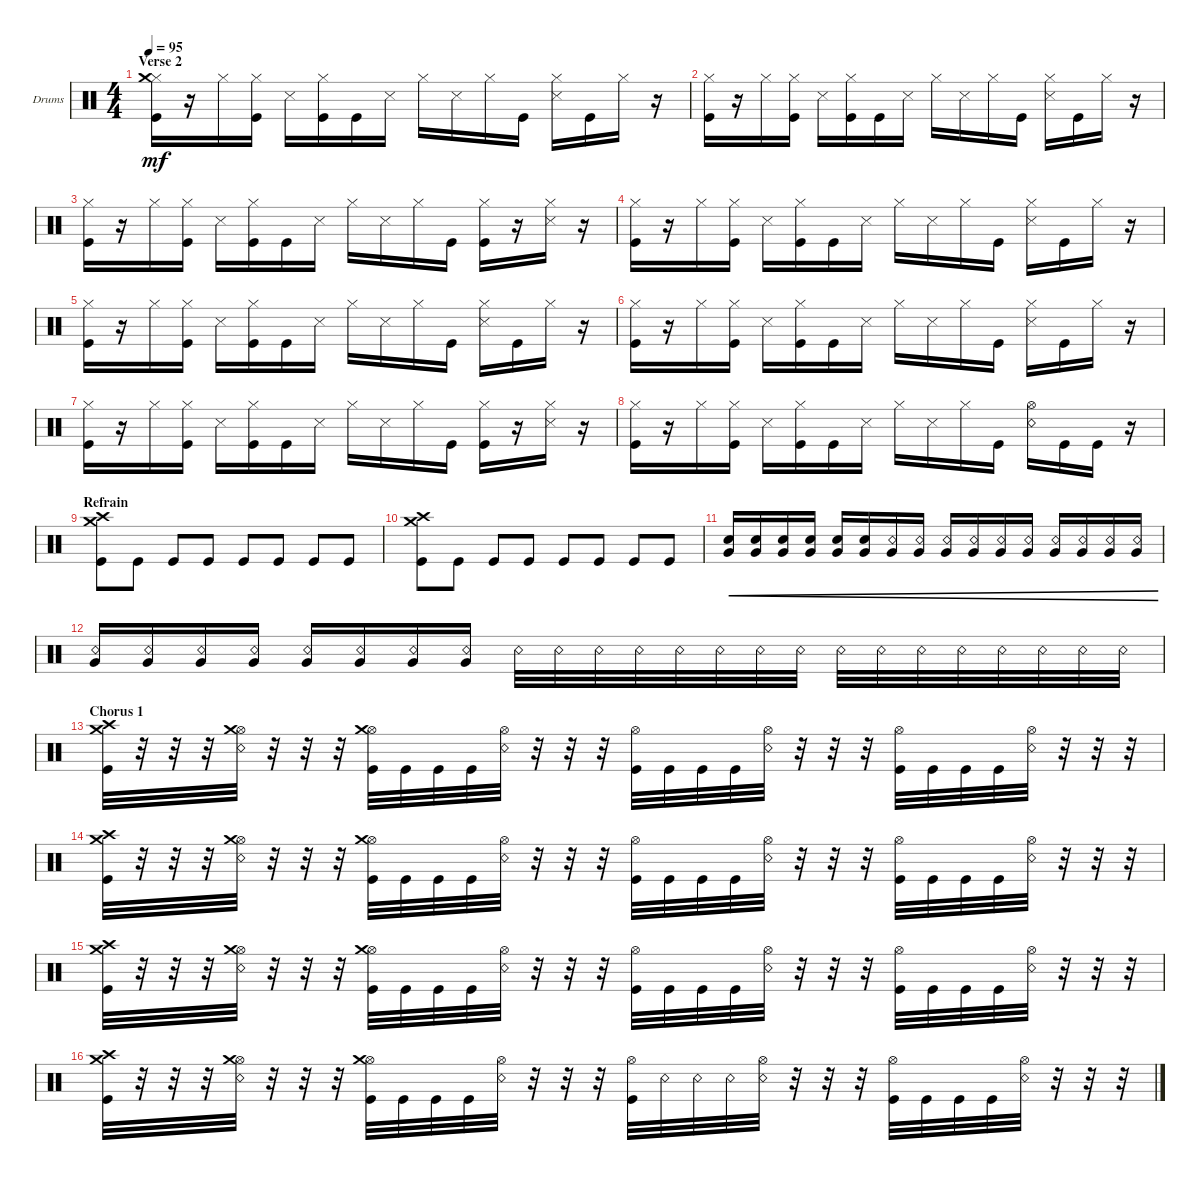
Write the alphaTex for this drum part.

\bracketExtendMode groupsimilarinstruments
\firstSystemTrackNameOrientation horizontal
\otherSystemsTrackNameOrientation horizontal
\track ("Drumkit" "Drums") {instrument percussion}
\staff {score}
\articulation defaults
\ts (4 4)
\section ("" "Verse 2")
\tempo 95
\clef neutral
\ks c
("Kick (hit)" "Hi-Hat (closed)" "Crash medium (hit)").16{dy mf} r.16 "Hi-Hat (closed)".16 ("Kick (hit)" "Hi-Hat (closed)").16 "Snare (side stick) 3".16 ("Kick (hit)" "Hi-Hat (closed)").16 "Kick (hit)".16 "Snare (side stick) 3".16 "Hi-Hat (closed)".16 "Snare (side stick) 3".16 "Hi-Hat (closed)".16 "Kick (hit)".16 ("Hi-Hat (closed)" "Snare (side stick) 3").16 "Kick (hit)".16 "Hi-Hat (closed)".16 r.16 |
("Kick (hit)" "Hi-Hat (closed)").16 r.16 "Hi-Hat (closed)".16 ("Kick (hit)" "Hi-Hat (closed)").16 "Snare (side stick) 3".16 ("Kick (hit)" "Hi-Hat (closed)").16 "Kick (hit)".16 "Snare (side stick) 3".16 "Hi-Hat (closed)".16 "Snare (side stick) 3".16 "Hi-Hat (closed)".16 "Kick (hit)".16 ("Hi-Hat (closed)" "Snare (side stick) 3").16 "Kick (hit)".16 "Hi-Hat (closed)".16 r.16 |
("Kick (hit)" "Hi-Hat (closed)").16 r.16 "Hi-Hat (closed)".16 ("Kick (hit)" "Hi-Hat (closed)").16 "Snare (side stick) 3".16 ("Kick (hit)" "Hi-Hat (closed)").16 "Kick (hit)".16 "Snare (side stick) 3".16 "Hi-Hat (closed)".16 "Snare (side stick) 3".16 "Hi-Hat (closed)".16 "Kick (hit)".16 ("Kick (hit)" "Hi-Hat (closed)").16 r.16 ("Snare (side stick) 3" "Hi-Hat (closed)").16 r.16 |
("Kick (hit)" "Hi-Hat (closed)").16 r.16 "Hi-Hat (closed)".16 ("Kick (hit)" "Hi-Hat (closed)").16 "Snare (side stick) 3".16 ("Kick (hit)" "Hi-Hat (closed)").16 "Kick (hit)".16 "Snare (side stick) 3".16 "Hi-Hat (closed)".16 "Snare (side stick) 3".16 "Hi-Hat (closed)".16 "Kick (hit)".16 ("Hi-Hat (closed)" "Snare (side stick) 3").16 "Kick (hit)".16 "Hi-Hat (closed)".16 r.16 |
("Kick (hit)" "Hi-Hat (closed)").16 r.16 "Hi-Hat (closed)".16 ("Kick (hit)" "Hi-Hat (closed)").16 "Snare (side stick) 3".16 ("Kick (hit)" "Hi-Hat (closed)").16 "Kick (hit)".16 "Snare (side stick) 3".16 "Hi-Hat (closed)".16 "Snare (side stick) 3".16 "Hi-Hat (closed)".16 "Kick (hit)".16 ("Hi-Hat (closed)" "Snare (side stick) 3").16 "Kick (hit)".16 "Hi-Hat (closed)".16 r.16 |
("Kick (hit)" "Hi-Hat (closed)").16 r.16 "Hi-Hat (closed)".16 ("Kick (hit)" "Hi-Hat (closed)").16 "Snare (side stick) 3".16 ("Kick (hit)" "Hi-Hat (closed)").16 "Kick (hit)".16 "Snare (side stick) 3".16 "Hi-Hat (closed)".16 "Snare (side stick) 3".16 "Hi-Hat (closed)".16 "Kick (hit)".16 ("Hi-Hat (closed)" "Snare (side stick) 3").16 "Kick (hit)".16 "Hi-Hat (closed)".16 r.16 |
("Kick (hit)" "Hi-Hat (closed)").16 r.16 "Hi-Hat (closed)".16 ("Kick (hit)" "Hi-Hat (closed)").16 "Snare (side stick) 3".16 ("Kick (hit)" "Hi-Hat (closed)").16 "Kick (hit)".16 "Snare (side stick) 3".16 "Hi-Hat (closed)".16 "Snare (side stick) 3".16 "Hi-Hat (closed)".16 "Kick (hit)".16 ("Kick (hit)" "Hi-Hat (closed)").16 r.16 ("Snare (side stick) 3" "Hi-Hat (closed)").16 r.16 |
("Kick (hit)" "Hi-Hat (closed)").16 r.16 "Hi-Hat (closed)".16 ("Kick (hit)" "Hi-Hat (closed)").16 "Snare (side stick) 3".16 ("Kick (hit)" "Hi-Hat (closed)").16 "Kick (hit)".16 "Snare (side stick) 3".16 "Hi-Hat (closed)".16 "Snare (side stick) 3".16 "Hi-Hat (closed)".16 "Kick (hit)".16 ("Hi-Hat (open)" "Snare (rim shot)").16 "Kick (hit)".16 "Kick (hit)".16 r.16 |
\section ("" "Refrain")
("Kick (hit)" "Crash medium (hit)" "Crash high (hit)").8 "Kick (hit)".8 "Kick (hit)".8 "Kick (hit)".8 "Kick (hit)".8 "Kick (hit)".8 "Kick (hit)".8 "Kick (hit)".8 |
("Crash medium (hit)" "Crash high (hit)" "Kick (hit)").8 "Kick (hit)".8 "Kick (hit)".8 "Kick (hit)".8 "Kick (hit)".8 "Kick (hit)".8 "Kick (hit)".8 "Kick (hit)".8 |
("Snare (hit) 2" "Very Low Tom (hit)").16{cre} ("Snare (hit) 2" "Very Low Tom (hit)").16{cre} ("Snare (hit) 2" "Very Low Tom (hit)").16{cre} ("Snare (hit) 2" "Very Low Tom (hit)").16{cre} ("Snare (hit) 2" "Very Low Tom (hit)").16{cre} ("Snare (hit) 2" "Very Low Tom (hit)").16{cre} ("Snare (rim shot)" "Very Low Tom (hit)").16{cre} ("Snare (rim shot)" "Very Low Tom (hit)").16{cre} ("Snare (rim shot)" "Very Low Tom (hit)").16{cre} ("Snare (rim shot)" "Very Low Tom (hit)").16{cre} ("Snare (rim shot)" "Very Low Tom (hit)").16{cre} ("Snare (rim shot)" "Very Low Tom (hit)").16{cre} ("Snare (rim shot)" "Very Low Tom (hit)").16{cre} ("Snare (rim shot)" "Very Low Tom (hit)").16{cre} ("Snare (rim shot)" "Very Low Tom (hit)").16{cre} ("Snare (rim shot)" "Very Low Tom (hit)").16{cre} |
("Snare (rim shot)" "Very Low Tom (hit)").16 ("Snare (rim shot)" "Very Low Tom (hit)").16 ("Snare (rim shot)" "Very Low Tom (hit)").16 ("Snare (rim shot)" "Very Low Tom (hit)").16 ("Snare (rim shot)" "Very Low Tom (hit)").16 ("Snare (rim shot)" "Very Low Tom (hit)").16 ("Snare (rim shot)" "Very Low Tom (hit)").16 ("Snare (rim shot)" "Very Low Tom (hit)").16 "Snare (rim shot)".32 "Snare (rim shot)".32 "Snare (rim shot)".32 "Snare (rim shot)".32 "Snare (rim shot)".32 "Snare (rim shot)".32 "Snare (rim shot)".32 "Snare (rim shot)".32 "Snare (rim shot)".32 "Snare (rim shot)".32 "Snare (rim shot)".32 "Snare (rim shot)".32 "Snare (rim shot)".32 "Snare (rim shot)".32 "Snare (rim shot)".32 "Snare (rim shot)".32 |
\section ("" "Chorus 1")
("Kick (hit)" "Crash medium (hit)" "Crash high (hit)").32 r.32 r.32 r.32 ("Snare (rim shot)" "Hi-Hat (open)" "Crash medium (hit)").32 r.32 r.32 r.32 ("Kick (hit)" "Hi-Hat (open)" "Crash medium (hit)").32 "Kick (hit)".32 "Kick (hit)".32 "Kick (hit)".32 ("Snare (rim shot)" "Hi-Hat (open)").32 r.32 r.32 r.32 ("Kick (hit)" "Hi-Hat (open)").32 "Kick (hit)".32 "Kick (hit)".32 "Kick (hit)".32 ("Snare (rim shot)" "Hi-Hat (open)").32 r.32 r.32 r.32 ("Kick (hit)" "Hi-Hat (open)").32 "Kick (hit)".32 "Kick (hit)".32 "Kick (hit)".32 ("Snare (rim shot)" "Hi-Hat (open)").32 r.32 r.32 r.32 |
("Kick (hit)" "Crash medium (hit)" "Crash high (hit)").32 r.32 r.32 r.32 ("Snare (rim shot)" "Hi-Hat (open)" "Crash medium (hit)").32 r.32 r.32 r.32 ("Kick (hit)" "Hi-Hat (open)" "Crash medium (hit)").32 "Kick (hit)".32 "Kick (hit)".32 "Kick (hit)".32 ("Snare (rim shot)" "Hi-Hat (open)").32 r.32 r.32 r.32 ("Kick (hit)" "Hi-Hat (open)").32 "Kick (hit)".32 "Kick (hit)".32 "Kick (hit)".32 ("Snare (rim shot)" "Hi-Hat (open)").32 r.32 r.32 r.32 ("Kick (hit)" "Hi-Hat (open)").32 "Kick (hit)".32 "Kick (hit)".32 "Kick (hit)".32 ("Snare (rim shot)" "Hi-Hat (open)").32 r.32 r.32 r.32 |
("Kick (hit)" "Crash medium (hit)" "Crash high (hit)").32 r.32 r.32 r.32 ("Snare (rim shot)" "Hi-Hat (open)" "Crash medium (hit)").32 r.32 r.32 r.32 ("Kick (hit)" "Hi-Hat (open)" "Crash medium (hit)").32 "Kick (hit)".32 "Kick (hit)".32 "Kick (hit)".32 ("Snare (rim shot)" "Hi-Hat (open)").32 r.32 r.32 r.32 ("Kick (hit)" "Hi-Hat (open)").32 "Kick (hit)".32 "Kick (hit)".32 "Kick (hit)".32 ("Snare (rim shot)" "Hi-Hat (open)").32 r.32 r.32 r.32 ("Kick (hit)" "Hi-Hat (open)").32 "Kick (hit)".32 "Kick (hit)".32 "Kick (hit)".32 ("Snare (rim shot)" "Hi-Hat (open)").32 r.32 r.32 r.32 |
("Kick (hit)" "Crash medium (hit)" "Crash high (hit)").32 r.32 r.32 r.32 ("Snare (rim shot)" "Hi-Hat (open)" "Crash medium (hit)").32 r.32 r.32 r.32 ("Kick (hit)" "Hi-Hat (open)" "Crash medium (hit)").32 "Kick (hit)".32 "Kick (hit)".32 "Kick (hit)".32 ("Snare (rim shot)" "Hi-Hat (open)").32 r.32 r.32 r.32 ("Kick (hit)" "Hi-Hat (open)").32 "Snare (rim shot)".32 "Snare (rim shot)".32 "Snare (rim shot)".32 ("Snare (rim shot)" "Hi-Hat (open)").32 r.32 r.32 r.32 ("Kick (hit)" "Hi-Hat (open)").32 "Kick (hit)".32 "Kick (hit)".32 "Kick (hit)".32 ("Snare (rim shot)" "Hi-Hat (open)").32 r.32 r.32 r.32
